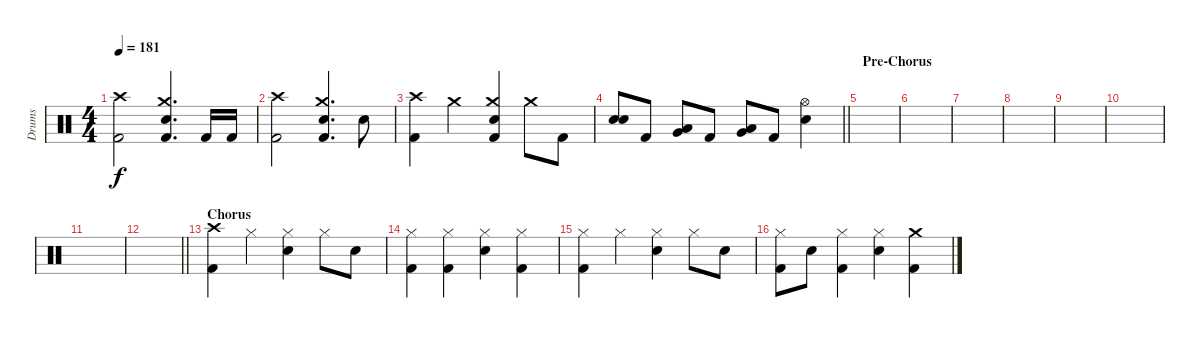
\track ("Drums" "Drums") {instrument percussion}
\staff {score}
\articulation defaults
\ts (4 4)
\tempo 181
\clef neutral
\ks c
("Crash high (hit)" "Kick (hit) 2").2{dy f} ("Crash medium (hit)" "Snare (hit) 2" "Kick (hit) 2").4{d} "Kick (hit) 2".16 "Kick (hit) 2".16 |
("Crash high (hit)" "Kick (hit) 2").2 ("Crash medium (hit)" "Snare (hit) 2" "Kick (hit) 2").4{d} "Snare (hit) 2".8 |
("Crash high (hit)" "Kick (hit) 2").4 "Crash medium (hit)".4 ("Crash medium (hit)" "Snare (hit) 2" "Kick (hit) 2").4 "Crash medium (hit)".8 "Kick (hit) 2".8 |
\barLineRight lightlight
("Snare (hit) 2" "Snare (hit) 2").8 "Kick (hit) 2".8 ("Very Low Tom (hit)" "Low Tom (hit)").8 "Kick (hit) 2".8 ("Low Floor Tom (hit)" "Very Low Tom (hit)").8 "Kick (hit) 2".8 ("Hi-Hat (open)" "Snare (hit) 2").4 |
\section ("" "Pre-Chorus")
|
|
|
|
|
|
|
\barLineRight lightlight
|
\section ("" "Chorus")
("Crash high (hit)" "Kick (hit) 2").4 "Hi-Hat (closed)".4 ("Hi-Hat (closed)" "Snare (hit) 2").4 "Hi-Hat (closed)".8 "Snare (hit) 2".8 |
("Hi-Hat (closed)" "Kick (hit) 2").4 ("Hi-Hat (closed)" "Kick (hit) 2").4 ("Hi-Hat (closed)" "Snare (hit) 2").4 ("Hi-Hat (closed)" "Kick (hit) 2").4 |
("Hi-Hat (closed)" "Kick (hit) 2").4 "Hi-Hat (closed)".4 ("Hi-Hat (closed)" "Snare (hit) 2").4 "Hi-Hat (closed)".8 "Snare (hit) 2".8 |
("Hi-Hat (closed)" "Kick (hit) 2").8 "Snare (hit) 2".8 ("Hi-Hat (closed)" "Kick (hit) 2").4 ("Hi-Hat (closed)" "Snare (hit) 2").4 ("Crash medium (hit)" "Kick (hit) 2").4
